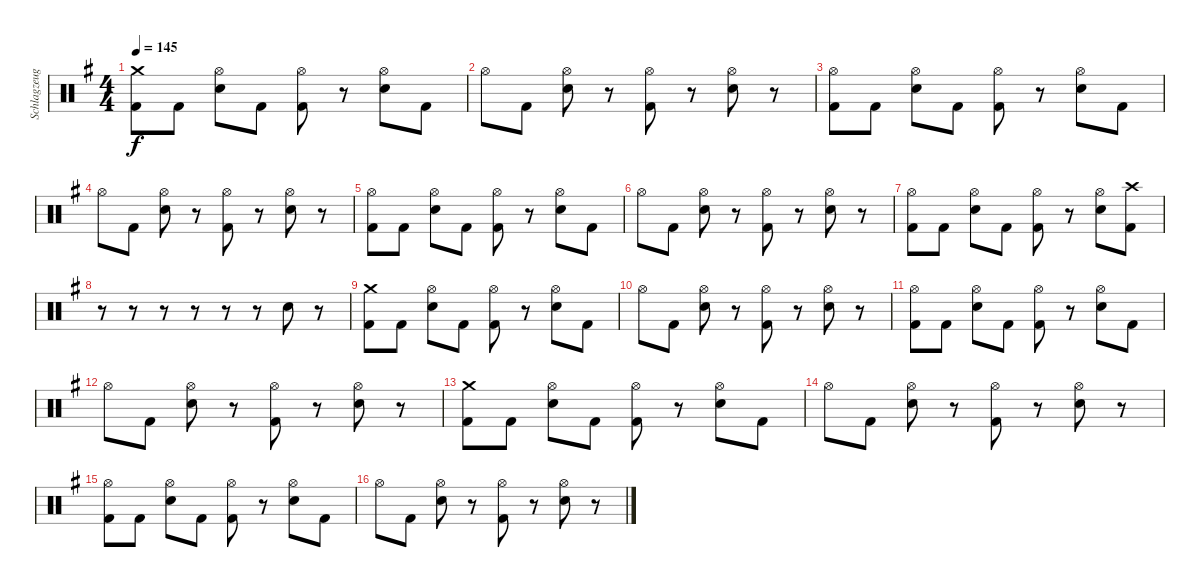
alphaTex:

\track ("Schlagzeug - Bela B. Felsenheimer" "Schlagzeug") {instrument percussion}
\staff {score}
\articulation defaults
\ts (4 4)
\tempo 145
\clef neutral
\ks g
("Crash medium (hit)" "Kick (hit) 2").8{dy f} "Kick (hit) 2".8 ("Hi-Hat (open)" "Snare (hit) 2").8 "Kick (hit) 2".8 ("Hi-Hat (open)" "Kick (hit) 2").8 r.8 ("Hi-Hat (open)" "Snare (hit) 2").8 "Kick (hit) 2".8 |
"Hi-Hat (open)".8 "Kick (hit) 2".8 ("Hi-Hat (open)" "Snare (hit) 2").8 r.8 ("Hi-Hat (open)" "Kick (hit) 2").8 r.8 ("Hi-Hat (open)" "Snare (hit) 2").8 r.8 |
("Hi-Hat (open)" "Kick (hit) 2").8 "Kick (hit) 2".8 ("Hi-Hat (open)" "Snare (hit) 2").8 "Kick (hit) 2".8 ("Hi-Hat (open)" "Kick (hit) 2").8 r.8 ("Hi-Hat (open)" "Snare (hit) 2").8 "Kick (hit) 2".8 |
"Hi-Hat (open)".8 "Kick (hit) 2".8 ("Hi-Hat (open)" "Snare (hit) 2").8 r.8 ("Hi-Hat (open)" "Kick (hit) 2").8 r.8 ("Hi-Hat (open)" "Snare (hit) 2").8 r.8 |
("Hi-Hat (open)" "Kick (hit) 2").8 "Kick (hit) 2".8 ("Hi-Hat (open)" "Snare (hit) 2").8 "Kick (hit) 2".8 ("Hi-Hat (open)" "Kick (hit) 2").8 r.8 ("Hi-Hat (open)" "Snare (hit) 2").8 "Kick (hit) 2".8 |
"Hi-Hat (open)".8 "Kick (hit) 2".8 ("Hi-Hat (open)" "Snare (hit) 2").8 r.8 ("Hi-Hat (open)" "Kick (hit) 2").8 r.8 ("Hi-Hat (open)" "Snare (hit) 2").8 r.8 |
("Hi-Hat (open)" "Kick (hit) 2").8 "Kick (hit) 2".8 ("Hi-Hat (open)" "Snare (hit) 2").8 "Kick (hit) 2".8 ("Hi-Hat (open)" "Kick (hit) 2").8 r.8 ("Hi-Hat (open)" "Snare (hit) 2").8 ("Crash high (hit)" "Kick (hit) 2").8 |
r.8 r.8 r.8 r.8 r.8 r.8 "Snare (hit) 2".8 r.8 |
("Crash medium (hit)" "Kick (hit) 2").8 "Kick (hit) 2".8 ("Hi-Hat (open)" "Snare (hit) 2").8 "Kick (hit) 2".8 ("Hi-Hat (open)" "Kick (hit) 2").8 r.8 ("Hi-Hat (open)" "Snare (hit) 2").8 "Kick (hit) 2".8 |
"Hi-Hat (open)".8 "Kick (hit) 2".8 ("Hi-Hat (open)" "Snare (hit) 2").8 r.8 ("Hi-Hat (open)" "Kick (hit) 2").8 r.8 ("Hi-Hat (open)" "Snare (hit) 2").8 r.8 |
("Hi-Hat (open)" "Kick (hit) 2").8 "Kick (hit) 2".8 ("Hi-Hat (open)" "Snare (hit) 2").8 "Kick (hit) 2".8 ("Hi-Hat (open)" "Kick (hit) 2").8 r.8 ("Hi-Hat (open)" "Snare (hit) 2").8 "Kick (hit) 2".8 |
"Hi-Hat (open)".8 "Kick (hit) 2".8 ("Hi-Hat (open)" "Snare (hit) 2").8 r.8 ("Hi-Hat (open)" "Kick (hit) 2").8 r.8 ("Hi-Hat (open)" "Snare (hit) 2").8 r.8 |
("Crash medium (hit)" "Kick (hit) 2").8 "Kick (hit) 2".8 ("Hi-Hat (open)" "Snare (hit) 2").8 "Kick (hit) 2".8 ("Hi-Hat (open)" "Kick (hit) 2").8 r.8 ("Hi-Hat (open)" "Snare (hit) 2").8 "Kick (hit) 2".8 |
"Hi-Hat (open)".8 "Kick (hit) 2".8 ("Hi-Hat (open)" "Snare (hit) 2").8 r.8 ("Hi-Hat (open)" "Kick (hit) 2").8 r.8 ("Hi-Hat (open)" "Snare (hit) 2").8 r.8 |
("Hi-Hat (open)" "Kick (hit) 2").8 "Kick (hit) 2".8 ("Hi-Hat (open)" "Snare (hit) 2").8 "Kick (hit) 2".8 ("Hi-Hat (open)" "Kick (hit) 2").8 r.8 ("Hi-Hat (open)" "Snare (hit) 2").8 "Kick (hit) 2".8 |
"Hi-Hat (open)".8 "Kick (hit) 2".8 ("Hi-Hat (open)" "Snare (hit) 2").8 r.8 ("Hi-Hat (open)" "Kick (hit) 2").8 r.8 ("Hi-Hat (open)" "Snare (hit) 2").8 r.8
